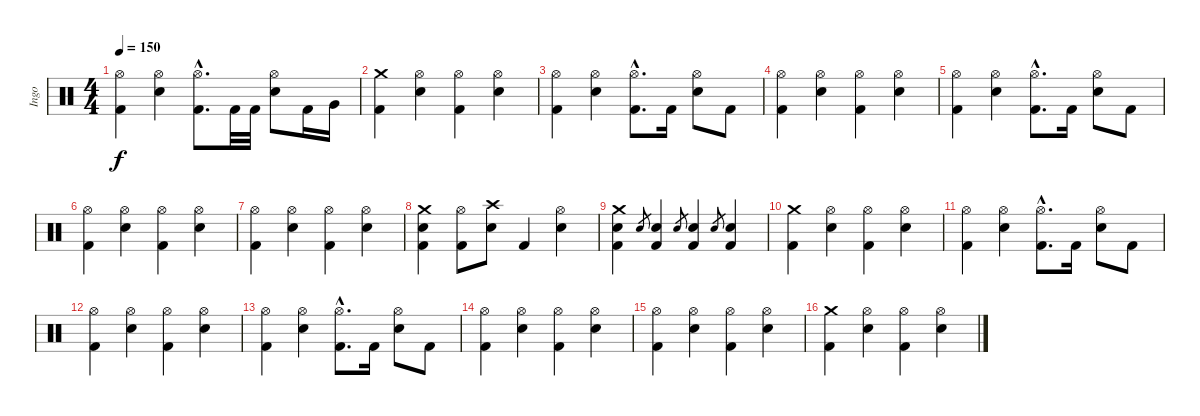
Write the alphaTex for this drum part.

\track ("Ingo" "Ingo") {instrument percussion}
\staff {score}
\articulation defaults
\ts (4 4)
\tempo 150
\clef neutral
\ks c
("Hi-Hat (open)" "Kick (hit) 2").4{dy f} ("Hi-Hat (open)" "Electric Snare (hit)").4 ("Hi-Hat (open)"{hac} "Kick (hit) 2"{hac}).8{d} "Kick (hit) 2".32 "Kick (hit) 2".32 ("Hi-Hat (open)" "Electric Snare (hit)").8 "Kick (hit) 2".16 "Very Low Tom (hit)".16 |
("Crash medium (hit)" "Kick (hit) 2").4 ("Hi-Hat (open)" "Electric Snare (hit)").4 ("Hi-Hat (open)" "Kick (hit) 2").4 ("Hi-Hat (open)" "Electric Snare (hit)").4 |
("Hi-Hat (open)" "Kick (hit) 2").4 ("Hi-Hat (open)" "Electric Snare (hit)").4 ("Hi-Hat (open)"{hac} "Kick (hit) 2"{hac}).8{d} "Kick (hit) 2".16 ("Hi-Hat (open)" "Electric Snare (hit)").8 "Kick (hit) 2".8 |
("Hi-Hat (open)" "Kick (hit) 2").4 ("Hi-Hat (open)" "Electric Snare (hit)").4 ("Hi-Hat (open)" "Kick (hit) 2").4 ("Hi-Hat (open)" "Electric Snare (hit)").4 |
("Hi-Hat (open)" "Kick (hit) 2").4 ("Hi-Hat (open)" "Electric Snare (hit)").4 ("Hi-Hat (open)"{hac} "Kick (hit) 2"{hac}).8{d} "Kick (hit) 2".16 ("Hi-Hat (open)" "Electric Snare (hit)").8 "Kick (hit) 2".8 |
("Hi-Hat (open)" "Kick (hit) 2").4 ("Hi-Hat (open)" "Electric Snare (hit)").4 ("Hi-Hat (open)" "Kick (hit) 2").4 ("Hi-Hat (open)" "Electric Snare (hit)").4 |
("Hi-Hat (open)" "Kick (hit) 2").4 ("Hi-Hat (open)" "Electric Snare (hit)").4 ("Hi-Hat (open)" "Kick (hit) 2").4 ("Hi-Hat (open)" "Electric Snare (hit)").4 |
("Crash medium (hit)" "Electric Snare (hit)" "Kick (hit) 2").4 ("Hi-Hat (open)" "Kick (hit) 2").8 ("Crash high (hit)" "Electric Snare (hit)").8 "Kick (hit) 2".4 ("Hi-Hat (open)" "Electric Snare (hit)").4 |
("Crash medium (hit)" "Electric Snare (hit)" "Kick (hit) 2").4 "Electric Snare (hit)".8{gr} ("Electric Snare (hit)" "Kick (hit) 2").4 "Electric Snare (hit)".8{gr} ("Electric Snare (hit)" "Kick (hit) 2").4 "Electric Snare (hit)".8{gr} ("Electric Snare (hit)" "Kick (hit) 2").4 |
("Crash medium (hit)" "Kick (hit) 2").4 ("Hi-Hat (open)" "Electric Snare (hit)").4 ("Hi-Hat (open)" "Kick (hit) 2").4 ("Hi-Hat (open)" "Electric Snare (hit)").4 |
("Hi-Hat (open)" "Kick (hit) 2").4 ("Hi-Hat (open)" "Electric Snare (hit)").4 ("Hi-Hat (open)"{hac} "Kick (hit) 2"{hac}).8{d} "Kick (hit) 2".16 ("Hi-Hat (open)" "Electric Snare (hit)").8 "Kick (hit) 2".8 |
("Hi-Hat (open)" "Kick (hit) 2").4 ("Hi-Hat (open)" "Electric Snare (hit)").4 ("Hi-Hat (open)" "Kick (hit) 2").4 ("Hi-Hat (open)" "Electric Snare (hit)").4 |
("Hi-Hat (open)" "Kick (hit) 2").4 ("Hi-Hat (open)" "Electric Snare (hit)").4 ("Hi-Hat (open)"{hac} "Kick (hit) 2"{hac}).8{d} "Kick (hit) 2".16 ("Hi-Hat (open)" "Electric Snare (hit)").8 "Kick (hit) 2".8 |
("Hi-Hat (open)" "Kick (hit) 2").4 ("Hi-Hat (open)" "Electric Snare (hit)").4 ("Hi-Hat (open)" "Kick (hit) 2").4 ("Hi-Hat (open)" "Electric Snare (hit)").4 |
("Hi-Hat (open)" "Kick (hit) 2").4 ("Hi-Hat (open)" "Electric Snare (hit)").4 ("Hi-Hat (open)" "Kick (hit) 2").4 ("Hi-Hat (open)" "Electric Snare (hit)").4 |
("Crash medium (hit)" "Kick (hit) 2").4 ("Hi-Hat (open)" "Electric Snare (hit)").4 ("Hi-Hat (open)" "Kick (hit) 2").4 ("Hi-Hat (open)" "Electric Snare (hit)").4
